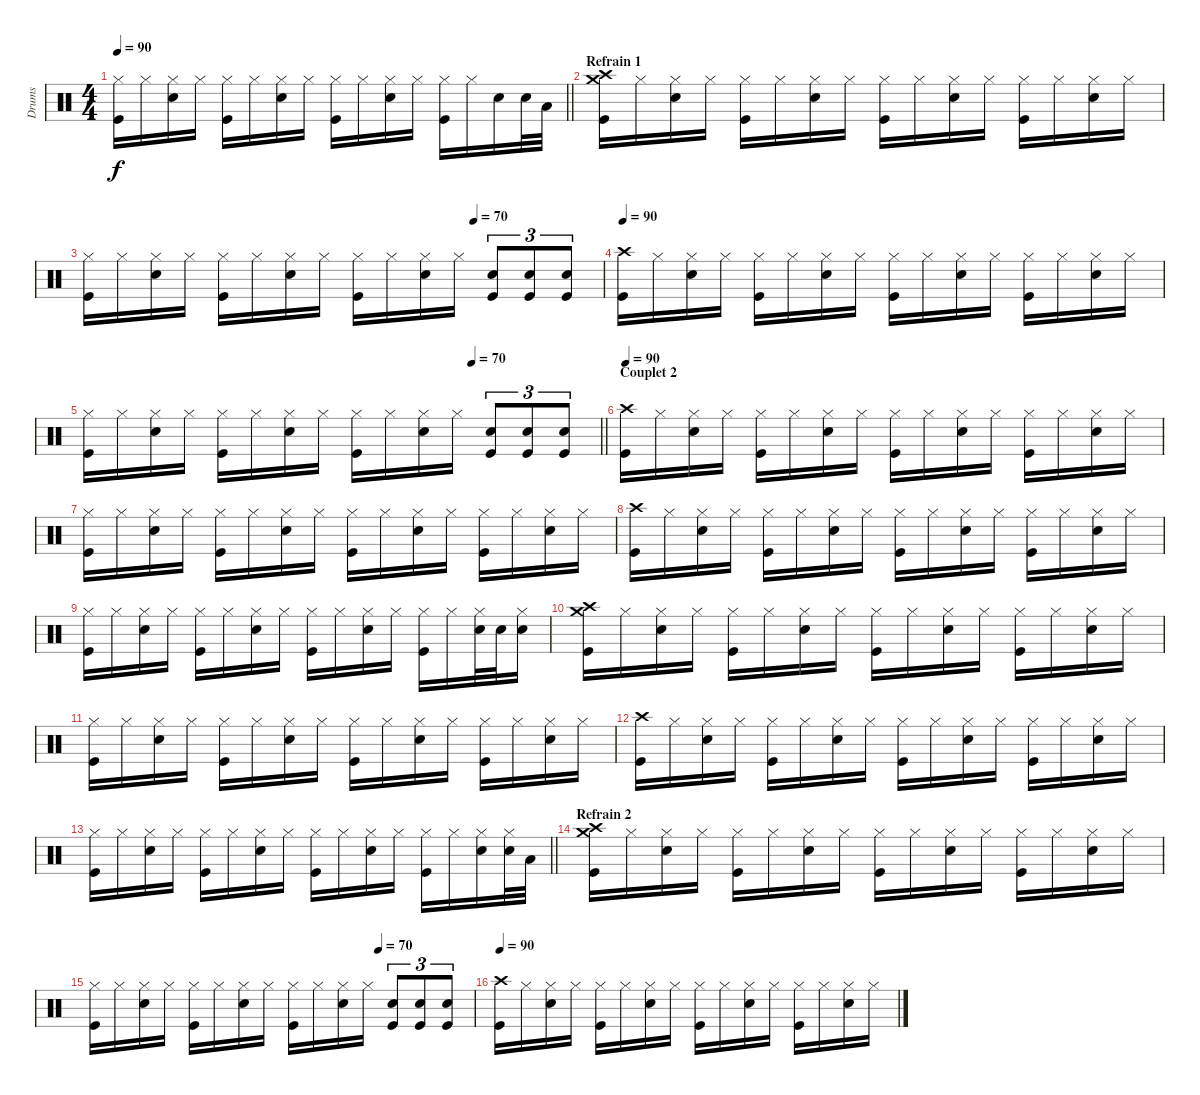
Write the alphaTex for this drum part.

\track ("Drums" "Drums") {instrument percussion}
\staff {score}
\articulation defaults
\ts (4 4)
\tempo 90
\clef neutral
\barLineRight lightlight
\ks c
("Hi-Hat (closed)" "Kick (hit)").16{dy f} "Hi-Hat (closed)".16 ("Hi-Hat (closed)" "Snare (hit) 2").16 "Hi-Hat (closed)".16 ("Hi-Hat (closed)" "Kick (hit)").16 "Hi-Hat (closed)".16 ("Hi-Hat (closed)" "Snare (hit) 2").16 "Hi-Hat (closed)".16 ("Hi-Hat (closed)" "Kick (hit)").16 "Hi-Hat (closed)".16 ("Hi-Hat (closed)" "Snare (hit) 2").16 "Hi-Hat (closed)".16 ("Hi-Hat (closed)" "Kick (hit)").16 "Hi-Hat (closed)".16 "Snare (hit) 2".16 "Snare (hit) 2".32 "Low Tom (hit)".32 |
\section ("" "Refrain 1")
("Crash high (hit)" "Crash medium (hit)" "Kick (hit)").16 "Hi-Hat (closed)".16 ("Hi-Hat (closed)" "Snare (hit) 2").16 "Hi-Hat (closed)".16 ("Hi-Hat (closed)" "Kick (hit)").16 "Hi-Hat (closed)".16 ("Hi-Hat (closed)" "Snare (hit) 2").16 "Hi-Hat (closed)".16 ("Hi-Hat (closed)" "Kick (hit)").16 "Hi-Hat (closed)".16 ("Hi-Hat (closed)" "Snare (hit) 2").16 "Hi-Hat (closed)".16 ("Hi-Hat (closed)" "Kick (hit)").16 "Hi-Hat (closed)".16 ("Hi-Hat (closed)" "Snare (hit) 2").16 "Hi-Hat (closed)".16 |
\tempo (70 0.75)
("Hi-Hat (closed)" "Kick (hit)").16 "Hi-Hat (closed)".16 ("Hi-Hat (closed)" "Snare (hit) 2").16 "Hi-Hat (closed)".16 ("Hi-Hat (closed)" "Kick (hit)").16 "Hi-Hat (closed)".16 ("Hi-Hat (closed)" "Snare (hit) 2").16 "Hi-Hat (closed)".16 ("Hi-Hat (closed)" "Kick (hit)").16 "Hi-Hat (closed)".16 ("Hi-Hat (closed)" "Snare (hit) 2").16 "Hi-Hat (closed)".16 ("Snare (hit) 2" "Kick (hit)").8{tu (3 2)} ("Snare (hit) 2" "Kick (hit)").8{tu (3 2)} ("Snare (hit) 2" "Kick (hit)").8{tu (3 2)} |
\tempo 90
("Crash high (hit)" "Kick (hit)").16 "Hi-Hat (closed)".16 ("Hi-Hat (closed)" "Snare (hit) 2").16 "Hi-Hat (closed)".16 ("Hi-Hat (closed)" "Kick (hit)").16 "Hi-Hat (closed)".16 ("Hi-Hat (closed)" "Snare (hit) 2").16 "Hi-Hat (closed)".16 ("Hi-Hat (closed)" "Kick (hit)").16 "Hi-Hat (closed)".16 ("Hi-Hat (closed)" "Snare (hit) 2").16 "Hi-Hat (closed)".16 ("Hi-Hat (closed)" "Kick (hit)").16 "Hi-Hat (closed)".16 ("Hi-Hat (closed)" "Snare (hit) 2").16 "Hi-Hat (closed)".16 |
\tempo (70 0.75)
\barLineRight lightlight
("Hi-Hat (closed)" "Kick (hit)").16 "Hi-Hat (closed)".16 ("Hi-Hat (closed)" "Snare (hit) 2").16 "Hi-Hat (closed)".16 ("Hi-Hat (closed)" "Kick (hit)").16 "Hi-Hat (closed)".16 ("Hi-Hat (closed)" "Snare (hit) 2").16 "Hi-Hat (closed)".16 ("Hi-Hat (closed)" "Kick (hit)").16 "Hi-Hat (closed)".16 ("Hi-Hat (closed)" "Snare (hit) 2").16 "Hi-Hat (closed)".16 ("Snare (hit) 2" "Kick (hit)").8{tu (3 2)} ("Snare (hit) 2" "Kick (hit)").8{tu (3 2)} ("Snare (hit) 2" "Kick (hit)").8{tu (3 2)} |
\section ("" "Couplet 2")
\tempo 90
("Crash high (hit)" "Kick (hit)").16 "Hi-Hat (closed)".16 ("Hi-Hat (closed)" "Snare (hit) 2").16 "Hi-Hat (closed)".16 ("Hi-Hat (closed)" "Kick (hit)").16 "Hi-Hat (closed)".16 ("Hi-Hat (closed)" "Snare (hit) 2").16 "Hi-Hat (closed)".16 ("Hi-Hat (closed)" "Kick (hit)").16 "Hi-Hat (closed)".16 ("Hi-Hat (closed)" "Snare (hit) 2").16 "Hi-Hat (closed)".16 ("Hi-Hat (closed)" "Kick (hit)").16 "Hi-Hat (closed)".16 ("Hi-Hat (closed)" "Snare (hit) 2").16 "Hi-Hat (closed)".16 |
("Hi-Hat (closed)" "Kick (hit)").16 "Hi-Hat (closed)".16 ("Hi-Hat (closed)" "Snare (hit) 2").16 "Hi-Hat (closed)".16 ("Hi-Hat (closed)" "Kick (hit)").16 "Hi-Hat (closed)".16 ("Hi-Hat (closed)" "Snare (hit) 2").16 "Hi-Hat (closed)".16 ("Hi-Hat (closed)" "Kick (hit)").16 "Hi-Hat (closed)".16 ("Hi-Hat (closed)" "Snare (hit) 2").16 "Hi-Hat (closed)".16 ("Hi-Hat (closed)" "Kick (hit)").16 "Hi-Hat (closed)".16 ("Hi-Hat (closed)" "Snare (hit) 2").16 "Hi-Hat (closed)".16 |
("Crash high (hit)" "Kick (hit)").16 "Hi-Hat (closed)".16 ("Hi-Hat (closed)" "Snare (hit) 2").16 "Hi-Hat (closed)".16 ("Hi-Hat (closed)" "Kick (hit)").16 "Hi-Hat (closed)".16 ("Hi-Hat (closed)" "Snare (hit) 2").16 "Hi-Hat (closed)".16 ("Hi-Hat (closed)" "Kick (hit)").16 "Hi-Hat (closed)".16 ("Hi-Hat (closed)" "Snare (hit) 2").16 "Hi-Hat (closed)".16 ("Hi-Hat (closed)" "Kick (hit)").16 "Hi-Hat (closed)".16 ("Hi-Hat (closed)" "Snare (hit) 2").16 "Hi-Hat (closed)".16 |
("Hi-Hat (closed)" "Kick (hit)").16 "Hi-Hat (closed)".16 ("Hi-Hat (closed)" "Snare (hit) 2").16 "Hi-Hat (closed)".16 ("Hi-Hat (closed)" "Kick (hit)").16 "Hi-Hat (closed)".16 ("Hi-Hat (closed)" "Snare (hit) 2").16 "Hi-Hat (closed)".16 ("Hi-Hat (closed)" "Kick (hit)").16 "Hi-Hat (closed)".16 ("Hi-Hat (closed)" "Snare (hit) 2").16 "Hi-Hat (closed)".16 ("Hi-Hat (closed)" "Kick (hit)").16 "Hi-Hat (closed)".16 ("Hi-Hat (closed)" "Snare (hit) 2").32 "Snare (hit) 2".32 ("Hi-Hat (closed)" "Snare (hit) 2").16 |
("Crash high (hit)" "Crash medium (hit)" "Kick (hit)").16 "Hi-Hat (closed)".16 ("Hi-Hat (closed)" "Snare (hit) 2").16 "Hi-Hat (closed)".16 ("Hi-Hat (closed)" "Kick (hit)").16 "Hi-Hat (closed)".16 ("Hi-Hat (closed)" "Snare (hit) 2").16 "Hi-Hat (closed)".16 ("Hi-Hat (closed)" "Kick (hit)").16 "Hi-Hat (closed)".16 ("Hi-Hat (closed)" "Snare (hit) 2").16 "Hi-Hat (closed)".16 ("Hi-Hat (closed)" "Kick (hit)").16 "Hi-Hat (closed)".16 ("Hi-Hat (closed)" "Snare (hit) 2").16 "Hi-Hat (closed)".16 |
("Hi-Hat (closed)" "Kick (hit)").16 "Hi-Hat (closed)".16 ("Hi-Hat (closed)" "Snare (hit) 2").16 "Hi-Hat (closed)".16 ("Hi-Hat (closed)" "Kick (hit)").16 "Hi-Hat (closed)".16 ("Hi-Hat (closed)" "Snare (hit) 2").16 "Hi-Hat (closed)".16 ("Hi-Hat (closed)" "Kick (hit)").16 "Hi-Hat (closed)".16 ("Hi-Hat (closed)" "Snare (hit) 2").16 "Hi-Hat (closed)".16 ("Hi-Hat (closed)" "Kick (hit)").16 "Hi-Hat (closed)".16 ("Hi-Hat (closed)" "Snare (hit) 2").16 "Hi-Hat (closed)".16 |
("Crash high (hit)" "Kick (hit)").16 "Hi-Hat (closed)".16 ("Hi-Hat (closed)" "Snare (hit) 2").16 "Hi-Hat (closed)".16 ("Hi-Hat (closed)" "Kick (hit)").16 "Hi-Hat (closed)".16 ("Hi-Hat (closed)" "Snare (hit) 2").16 "Hi-Hat (closed)".16 ("Hi-Hat (closed)" "Kick (hit)").16 "Hi-Hat (closed)".16 ("Hi-Hat (closed)" "Snare (hit) 2").16 "Hi-Hat (closed)".16 ("Hi-Hat (closed)" "Kick (hit)").16 "Hi-Hat (closed)".16 ("Hi-Hat (closed)" "Snare (hit) 2").16 "Hi-Hat (closed)".16 |
\barLineRight lightlight
("Hi-Hat (closed)" "Kick (hit)").16 "Hi-Hat (closed)".16 ("Hi-Hat (closed)" "Snare (hit) 2").16 "Hi-Hat (closed)".16 ("Hi-Hat (closed)" "Kick (hit)").16 "Hi-Hat (closed)".16 ("Hi-Hat (closed)" "Snare (hit) 2").16 "Hi-Hat (closed)".16 ("Hi-Hat (closed)" "Kick (hit)").16 "Hi-Hat (closed)".16 ("Hi-Hat (closed)" "Snare (hit) 2").16 "Hi-Hat (closed)".16 ("Hi-Hat (closed)" "Kick (hit)").16 "Hi-Hat (closed)".16 ("Hi-Hat (closed)" "Snare (hit) 2").16 ("Hi-Hat (closed)" "Snare (hit) 2").32 "Low Tom (hit)".32 |
\section ("" "Refrain 2")
("Crash high (hit)" "Crash medium (hit)" "Kick (hit)").16 "Hi-Hat (closed)".16 ("Hi-Hat (closed)" "Snare (hit) 2").16 "Hi-Hat (closed)".16 ("Hi-Hat (closed)" "Kick (hit)").16 "Hi-Hat (closed)".16 ("Hi-Hat (closed)" "Snare (hit) 2").16 "Hi-Hat (closed)".16 ("Hi-Hat (closed)" "Kick (hit)").16 "Hi-Hat (closed)".16 ("Hi-Hat (closed)" "Snare (hit) 2").16 "Hi-Hat (closed)".16 ("Hi-Hat (closed)" "Kick (hit)").16 "Hi-Hat (closed)".16 ("Hi-Hat (closed)" "Snare (hit) 2").16 "Hi-Hat (closed)".16 |
\tempo (70 0.75)
("Hi-Hat (closed)" "Kick (hit)").16 "Hi-Hat (closed)".16 ("Hi-Hat (closed)" "Snare (hit) 2").16 "Hi-Hat (closed)".16 ("Hi-Hat (closed)" "Kick (hit)").16 "Hi-Hat (closed)".16 ("Hi-Hat (closed)" "Snare (hit) 2").16 "Hi-Hat (closed)".16 ("Hi-Hat (closed)" "Kick (hit)").16 "Hi-Hat (closed)".16 ("Hi-Hat (closed)" "Snare (hit) 2").16 "Hi-Hat (closed)".16 ("Snare (hit) 2" "Kick (hit)").8{tu (3 2)} ("Snare (hit) 2" "Kick (hit)").8{tu (3 2)} ("Snare (hit) 2" "Kick (hit)").8{tu (3 2)} |
\tempo 90
("Crash high (hit)" "Kick (hit)").16 "Hi-Hat (closed)".16 ("Hi-Hat (closed)" "Snare (hit) 2").16 "Hi-Hat (closed)".16 ("Hi-Hat (closed)" "Kick (hit)").16 "Hi-Hat (closed)".16 ("Hi-Hat (closed)" "Snare (hit) 2").16 "Hi-Hat (closed)".16 ("Hi-Hat (closed)" "Kick (hit)").16 "Hi-Hat (closed)".16 ("Hi-Hat (closed)" "Snare (hit) 2").16 "Hi-Hat (closed)".16 ("Hi-Hat (closed)" "Kick (hit)").16 "Hi-Hat (closed)".16 ("Hi-Hat (closed)" "Snare (hit) 2").16 "Hi-Hat (closed)".16
